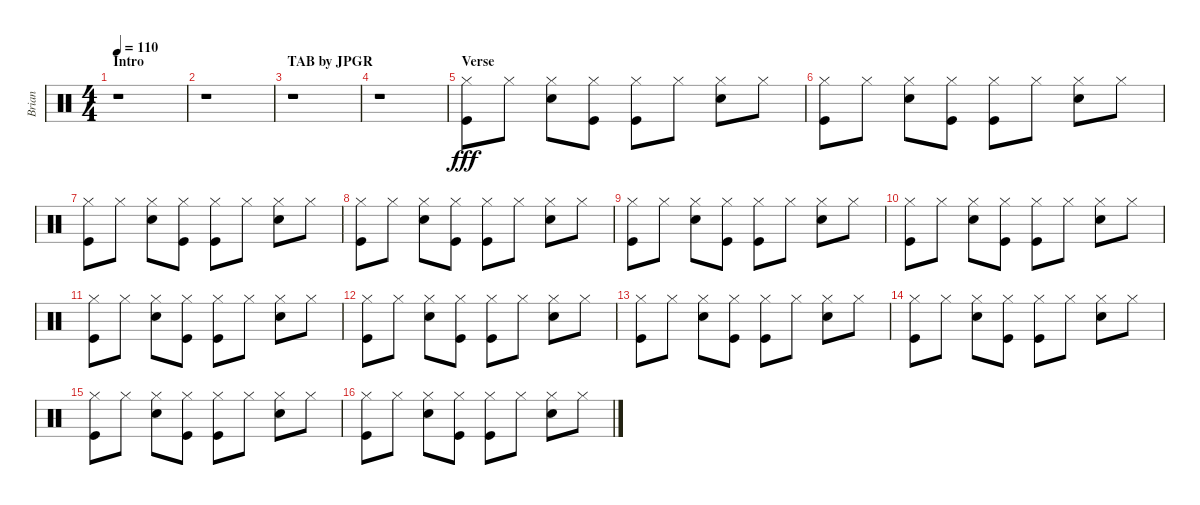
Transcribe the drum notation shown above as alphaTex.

\track ("Brian" "Brian") {instrument percussion}
\staff {score}
\articulation defaults
\ts (4 4)
\section ("" "Intro                                         TAB by JPGR")
\tempo 110
\clef neutral
\ks c
r.1{dy fff} |
r.1 |
r.1 |
r.1 |
\section ("" "Verse")
("Hi-Hat (closed)" "Kick (hit)").8 "Hi-Hat (closed)".8 ("Hi-Hat (closed)" "Electric Snare (hit)").8 ("Hi-Hat (closed)" "Kick (hit)").8 ("Hi-Hat (closed)" "Kick (hit)").8 "Hi-Hat (closed)".8 ("Hi-Hat (closed)" "Electric Snare (hit)").8 "Hi-Hat (closed)".8 |
("Hi-Hat (closed)" "Kick (hit)").8 "Hi-Hat (closed)".8 ("Hi-Hat (closed)" "Electric Snare (hit)").8 ("Hi-Hat (closed)" "Kick (hit)").8 ("Hi-Hat (closed)" "Kick (hit)").8 "Hi-Hat (closed)".8 ("Hi-Hat (closed)" "Electric Snare (hit)").8 "Hi-Hat (closed)".8 |
("Hi-Hat (closed)" "Kick (hit)").8 "Hi-Hat (closed)".8 ("Hi-Hat (closed)" "Electric Snare (hit)").8 ("Hi-Hat (closed)" "Kick (hit)").8 ("Hi-Hat (closed)" "Kick (hit)").8 "Hi-Hat (closed)".8 ("Hi-Hat (closed)" "Electric Snare (hit)").8 "Hi-Hat (closed)".8 |
("Hi-Hat (closed)" "Kick (hit)").8 "Hi-Hat (closed)".8 ("Hi-Hat (closed)" "Electric Snare (hit)").8 ("Hi-Hat (closed)" "Kick (hit)").8 ("Hi-Hat (closed)" "Kick (hit)").8 "Hi-Hat (closed)".8 ("Hi-Hat (closed)" "Electric Snare (hit)").8 "Hi-Hat (closed)".8 |
("Hi-Hat (closed)" "Kick (hit)").8 "Hi-Hat (closed)".8 ("Hi-Hat (closed)" "Electric Snare (hit)").8 ("Hi-Hat (closed)" "Kick (hit)").8 ("Hi-Hat (closed)" "Kick (hit)").8 "Hi-Hat (closed)".8 ("Hi-Hat (closed)" "Electric Snare (hit)").8 "Hi-Hat (closed)".8 |
("Hi-Hat (closed)" "Kick (hit)").8 "Hi-Hat (closed)".8 ("Hi-Hat (closed)" "Electric Snare (hit)").8 ("Hi-Hat (closed)" "Kick (hit)").8 ("Hi-Hat (closed)" "Kick (hit)").8 "Hi-Hat (closed)".8 ("Hi-Hat (closed)" "Electric Snare (hit)").8 "Hi-Hat (closed)".8 |
("Hi-Hat (closed)" "Kick (hit)").8 "Hi-Hat (closed)".8 ("Hi-Hat (closed)" "Electric Snare (hit)").8 ("Hi-Hat (closed)" "Kick (hit)").8 ("Hi-Hat (closed)" "Kick (hit)").8 "Hi-Hat (closed)".8 ("Hi-Hat (closed)" "Electric Snare (hit)").8 "Hi-Hat (closed)".8 |
("Hi-Hat (closed)" "Kick (hit)").8 "Hi-Hat (closed)".8 ("Hi-Hat (closed)" "Electric Snare (hit)").8 ("Hi-Hat (closed)" "Kick (hit)").8 ("Hi-Hat (closed)" "Kick (hit)").8 "Hi-Hat (closed)".8 ("Hi-Hat (closed)" "Electric Snare (hit)").8 "Hi-Hat (closed)".8 |
("Hi-Hat (closed)" "Kick (hit)").8 "Hi-Hat (closed)".8 ("Hi-Hat (closed)" "Electric Snare (hit)").8 ("Hi-Hat (closed)" "Kick (hit)").8 ("Hi-Hat (closed)" "Kick (hit)").8 "Hi-Hat (closed)".8 ("Hi-Hat (closed)" "Electric Snare (hit)").8 "Hi-Hat (closed)".8 |
("Hi-Hat (closed)" "Kick (hit)").8 "Hi-Hat (closed)".8 ("Hi-Hat (closed)" "Electric Snare (hit)").8 ("Hi-Hat (closed)" "Kick (hit)").8 ("Hi-Hat (closed)" "Kick (hit)").8 "Hi-Hat (closed)".8 ("Hi-Hat (closed)" "Electric Snare (hit)").8 "Hi-Hat (closed)".8 |
("Hi-Hat (closed)" "Kick (hit)").8 "Hi-Hat (closed)".8 ("Hi-Hat (closed)" "Electric Snare (hit)").8 ("Hi-Hat (closed)" "Kick (hit)").8 ("Hi-Hat (closed)" "Kick (hit)").8 "Hi-Hat (closed)".8 ("Hi-Hat (closed)" "Electric Snare (hit)").8 "Hi-Hat (closed)".8 |
("Hi-Hat (closed)" "Kick (hit)").8 "Hi-Hat (closed)".8 ("Hi-Hat (closed)" "Electric Snare (hit)").8 ("Hi-Hat (closed)" "Kick (hit)").8 ("Hi-Hat (closed)" "Kick (hit)").8 "Hi-Hat (closed)".8 ("Hi-Hat (closed)" "Electric Snare (hit)").8 "Hi-Hat (closed)".8
